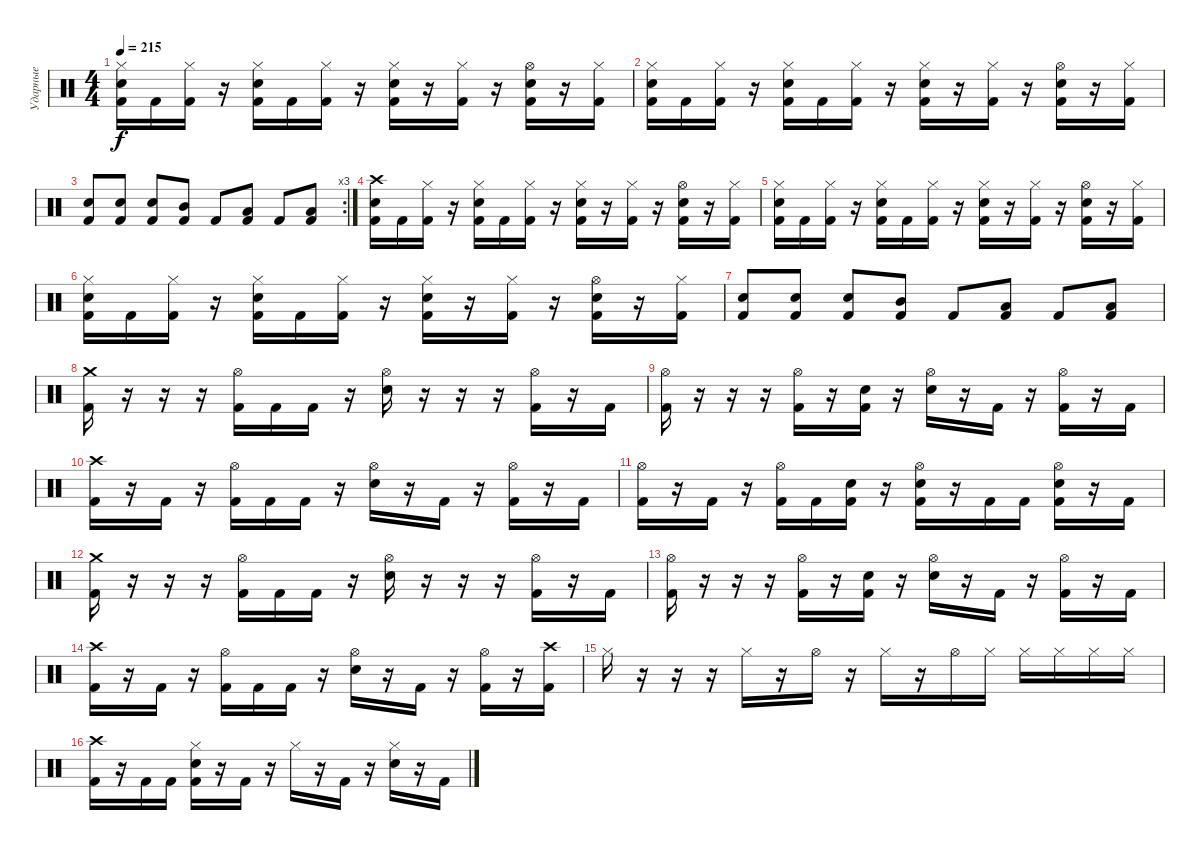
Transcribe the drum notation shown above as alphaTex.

\track ("Ударные" "Ударные") {instrument percussion}
\staff {score}
\articulation defaults
\ts (4 4)
\tempo 215
\clef neutral
\ks c
("Hi-Hat (closed)" "Snare (hit) 2" "Kick (hit) 2").16{dy f} "Kick (hit) 2".16 ("Hi-Hat (closed)" "Kick (hit) 2").16 r.16 ("Hi-Hat (closed)" "Snare (hit) 2" "Kick (hit) 2").16 "Kick (hit) 2".16 ("Hi-Hat (closed)" "Kick (hit) 2").16 r.16 ("Hi-Hat (closed)" "Snare (hit) 2" "Kick (hit) 2").16 r.16 ("Hi-Hat (closed)" "Kick (hit) 2").16 r.16 ("Hi-Hat (open)" "Snare (hit) 2" "Kick (hit) 2").16 r.16 ("Hi-Hat (closed)" "Kick (hit) 2").16 |
("Hi-Hat (closed)" "Snare (hit) 2" "Kick (hit) 2").16 "Kick (hit) 2".16 ("Hi-Hat (closed)" "Kick (hit) 2").16 r.16 ("Hi-Hat (closed)" "Snare (hit) 2" "Kick (hit) 2").16 "Kick (hit) 2".16 ("Hi-Hat (closed)" "Kick (hit) 2").16 r.16 ("Hi-Hat (closed)" "Snare (hit) 2" "Kick (hit) 2").16 r.16 ("Hi-Hat (closed)" "Kick (hit) 2").16 r.16 ("Hi-Hat (open)" "Snare (hit) 2" "Kick (hit) 2").16 r.16 ("Hi-Hat (closed)" "Kick (hit) 2").16 |
\rc 3
("Snare (hit) 2" "Kick (hit) 2").8 ("Snare (hit) 2" "Kick (hit) 2").8 ("Snare (hit) 2" "Kick (hit) 2").8 ("Mid Tom (hit)" "Kick (hit) 2").8 "Kick (hit) 2".8 ("Low Tom (hit)" "Kick (hit) 2").8 "Kick (hit) 2".8 ("Low Tom (hit)" "Kick (hit) 2").8 |
("Crash high (hit)" "Snare (hit) 2" "Kick (hit) 2").16 "Kick (hit) 2".16 ("Hi-Hat (closed)" "Kick (hit) 2").16 r.16 ("Hi-Hat (closed)" "Snare (hit) 2" "Kick (hit) 2").16 "Kick (hit) 2".16 ("Hi-Hat (closed)" "Kick (hit) 2").16 r.16 ("Hi-Hat (closed)" "Snare (hit) 2" "Kick (hit) 2").16 r.16 ("Hi-Hat (closed)" "Kick (hit) 2").16 r.16 ("Hi-Hat (open)" "Snare (hit) 2" "Kick (hit) 2").16 r.16 ("Hi-Hat (closed)" "Kick (hit) 2").16 |
("Hi-Hat (closed)" "Snare (hit) 2" "Kick (hit) 2").16 "Kick (hit) 2".16 ("Hi-Hat (closed)" "Kick (hit) 2").16 r.16 ("Hi-Hat (closed)" "Snare (hit) 2" "Kick (hit) 2").16 "Kick (hit) 2".16 ("Hi-Hat (closed)" "Kick (hit) 2").16 r.16 ("Hi-Hat (closed)" "Snare (hit) 2" "Kick (hit) 2").16 r.16 ("Hi-Hat (closed)" "Kick (hit) 2").16 r.16 ("Hi-Hat (open)" "Snare (hit) 2" "Kick (hit) 2").16 r.16 ("Hi-Hat (closed)" "Kick (hit) 2").16 |
("Hi-Hat (closed)" "Snare (hit) 2" "Kick (hit) 2").16 "Kick (hit) 2".16 ("Hi-Hat (closed)" "Kick (hit) 2").16 r.16 ("Hi-Hat (closed)" "Snare (hit) 2" "Kick (hit) 2").16 "Kick (hit) 2".16 ("Hi-Hat (closed)" "Kick (hit) 2").16 r.16 ("Hi-Hat (closed)" "Snare (hit) 2" "Kick (hit) 2").16 r.16 ("Hi-Hat (closed)" "Kick (hit) 2").16 r.16 ("Hi-Hat (open)" "Snare (hit) 2" "Kick (hit) 2").16 r.16 ("Hi-Hat (closed)" "Kick (hit) 2").16 |
("Snare (hit) 2" "Kick (hit) 2").8 ("Snare (hit) 2" "Kick (hit) 2").8 ("Snare (hit) 2" "Kick (hit) 2").8 ("Mid Tom (hit)" "Kick (hit) 2").8 "Kick (hit) 2".8 ("Low Tom (hit)" "Kick (hit) 2").8 "Kick (hit) 2".8 ("Low Tom (hit)" "Kick (hit) 2").8 |
("Crash medium (hit)" "Kick (hit) 2").16 r.16 r.16 r.16 ("Hi-Hat (open)" "Kick (hit) 2").16 "Kick (hit) 2".16 "Kick (hit) 2".16 r.16 ("Hi-Hat (open)" "Snare (hit) 2").16 r.16 r.16 r.16 ("Hi-Hat (open)" "Kick (hit) 2").16 r.16 "Kick (hit) 2".16 |
("Hi-Hat (open)" "Kick (hit) 2").16 r.16 r.16 r.16 ("Hi-Hat (open)" "Kick (hit) 2").16 r.16 ("Snare (hit) 2" "Kick (hit) 2").16 r.16 ("Hi-Hat (open)" "Snare (hit) 2").16 r.16 "Kick (hit) 2".16 r.16 ("Hi-Hat (open)" "Kick (hit) 2").16 r.16 "Kick (hit) 2".16 |
("Crash high (hit)" "Kick (hit) 2").16 r.16 "Kick (hit) 2".16 r.16 ("Hi-Hat (open)" "Kick (hit) 2").16 "Kick (hit) 2".16 "Kick (hit) 2".16 r.16 ("Hi-Hat (open)" "Snare (hit) 2").16 r.16 "Kick (hit) 2".16 r.16 ("Hi-Hat (open)" "Kick (hit) 2").16 r.16 "Kick (hit) 2".16 |
("Hi-Hat (open)" "Kick (hit) 2").16 r.16 "Kick (hit) 2".16 r.16 ("Hi-Hat (open)" "Kick (hit) 2").16 "Kick (hit) 2".16 ("Snare (hit) 2" "Kick (hit) 2").16 r.16 ("Hi-Hat (open)" "Snare (hit) 2" "Kick (hit) 2").16 r.16 "Kick (hit) 2".16 "Kick (hit) 2".16 ("Hi-Hat (open)" "Snare (hit) 2" "Kick (hit) 2").16 r.16 "Kick (hit) 2".16 |
("Crash medium (hit)" "Kick (hit) 2").16 r.16 r.16 r.16 ("Hi-Hat (open)" "Kick (hit) 2").16 "Kick (hit) 2".16 "Kick (hit) 2".16 r.16 ("Hi-Hat (open)" "Snare (hit) 2").16 r.16 r.16 r.16 ("Hi-Hat (open)" "Kick (hit) 2").16 r.16 "Kick (hit) 2".16 |
("Hi-Hat (open)" "Kick (hit) 2").16 r.16 r.16 r.16 ("Hi-Hat (open)" "Kick (hit) 2").16 r.16 ("Snare (hit) 2" "Kick (hit) 2").16 r.16 ("Hi-Hat (open)" "Snare (hit) 2").16 r.16 "Kick (hit) 2".16 r.16 ("Hi-Hat (open)" "Kick (hit) 2").16 r.16 "Kick (hit) 2".16 |
("Crash high (hit)" "Kick (hit) 2").16 r.16 "Kick (hit) 2".16 r.16 ("Hi-Hat (open)" "Kick (hit) 2").16 "Kick (hit) 2".16 "Kick (hit) 2".16 r.16 ("Hi-Hat (open)" "Snare (hit) 2").16 r.16 "Kick (hit) 2".16 r.16 ("Hi-Hat (open)" "Kick (hit) 2").16 r.16 ("Crash high (hit)" "Kick (hit) 2").16 |
"Hi-Hat (closed)".16 r.16 r.16 r.16 "Hi-Hat (closed)".16 r.16 "Hi-Hat (open)".16 r.16 "Hi-Hat (closed)".16 r.16 "Hi-Hat (open)".16 "Hi-Hat (closed)".16 "Hi-Hat (closed)".16 "Hi-Hat (closed)".16 "Hi-Hat (closed)".16 "Hi-Hat (closed)".16 |
("Crash high (hit)" "Kick (hit) 2").16 r.16 "Kick (hit) 2".16 "Kick (hit) 2".16 ("Hi-Hat (closed)" "Snare (hit) 2" "Kick (hit) 2").16 r.16 "Kick (hit) 2".16 r.16 "Hi-Hat (closed)".16 r.16 "Kick (hit) 2".16 r.16 ("Hi-Hat (closed)" "Snare (hit) 2").16 r.16 "Kick (hit) 2".16
